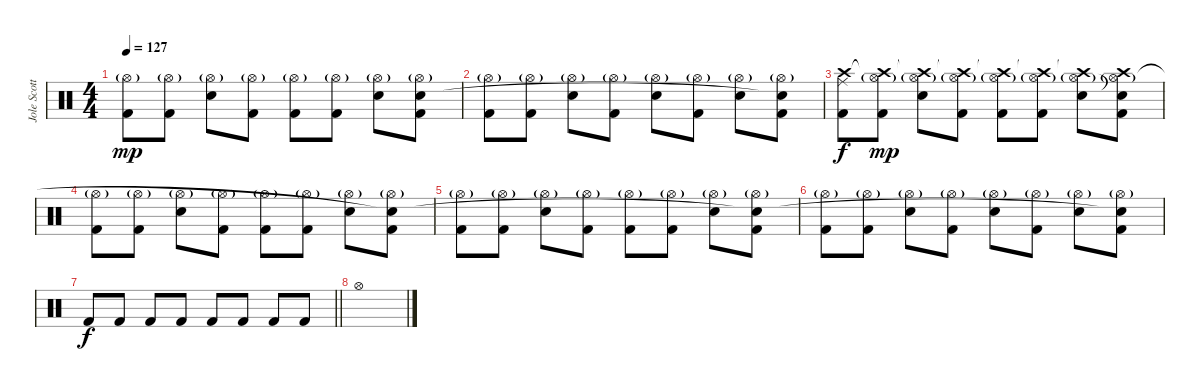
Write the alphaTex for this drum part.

\track ("Jole Scott Key" "Jole Scott") {instrument percussion}
\staff {score}
\articulation defaults
\ts (4 4)
\tempo 127
\clef neutral
\ks c
("Kick (hit) 2" "Hi-Hat (open)"{g}).8{dy mp} ("Kick (hit) 2" "Hi-Hat (open)"{g}).8 ("Electric Snare (hit)" "Hi-Hat (open)"{g}).8 ("Kick (hit) 2" "Hi-Hat (open)"{g}).8 ("Kick (hit) 2" "Hi-Hat (open)"{g}).8 ("Kick (hit) 2" "Hi-Hat (open)"{g}).8 ("Electric Snare (hit)" "Hi-Hat (open)"{g}).8 ("Kick (hit) 2" "Hi-Hat (open)"{g} "Snare (hit)"{t}).8 |
("Kick (hit) 2" "Hi-Hat (open)"{g}).8 ("Kick (hit) 2" "Hi-Hat (open)"{g}).8 ("Electric Snare (hit)" "Hi-Hat (open)"{g}).8 ("Kick (hit) 2" "Hi-Hat (open)"{g}).8 ("Electric Snare (hit)" "Hi-Hat (open)"{g}).8 ("Kick (hit) 2" "Hi-Hat (open)"{g}).8 ("Electric Snare (hit)" "Hi-Hat (open)"{g}).8 ("Kick (hit) 2" "Hi-Hat (open)"{g} "Snare (hit)"{t}).8 |
("Kick (hit) 2" "Ride (middle)" "Crash high (hit)").8{dy f} ("Kick (hit) 2" "Hi-Hat (open)"{g} "Crash high (hit)"{t}).8{dy mp} ("Electric Snare (hit)" "Hi-Hat (open)"{g} "Crash high (hit)"{t}).8 ("Kick (hit) 2" "Hi-Hat (open)"{g} "Crash high (hit)"{t}).8 ("Kick (hit) 2" "Hi-Hat (open)"{g} "Crash high (hit)"{t}).8 ("Kick (hit) 2" "Hi-Hat (open)"{g} "Crash high (hit)"{t}).8 ("Electric Snare (hit)" "Hi-Hat (open)"{g} "Crash high (hit)"{t}).8 ("Kick (hit) 2" "Snare (hit)"{t} "Hi-Hat (open)"{g} "Crash high (hit)").8 |
("Kick (hit) 2" "Hi-Hat (open)"{g}).8 ("Kick (hit) 2" "Hi-Hat (open)"{g}).8 ("Electric Snare (hit)" "Hi-Hat (open)"{g}).8 ("Kick (hit) 2" "Hi-Hat (open)"{g}).8 ("Kick (hit) 2" "Hi-Hat (open)"{g}).8 ("Kick (hit) 2" "Hi-Hat (open)"{g}).8 ("Electric Snare (hit)" "Hi-Hat (open)"{g}).8 ("Kick (hit) 2" "Hi-Hat (open)"{g} "Snare (hit)"{t}).8 |
("Kick (hit) 2" "Hi-Hat (open)"{g}).8 ("Kick (hit) 2" "Hi-Hat (open)"{g}).8 ("Electric Snare (hit)" "Hi-Hat (open)"{g}).8 ("Kick (hit) 2" "Hi-Hat (open)"{g}).8 ("Kick (hit) 2" "Hi-Hat (open)"{g}).8 ("Kick (hit) 2" "Hi-Hat (open)"{g}).8 ("Electric Snare (hit)" "Hi-Hat (open)"{g}).8 ("Kick (hit) 2" "Hi-Hat (open)"{g} "Snare (hit)"{t}).8 |
("Kick (hit) 2" "Hi-Hat (open)"{g}).8 ("Kick (hit) 2" "Hi-Hat (open)"{g}).8 ("Electric Snare (hit)" "Hi-Hat (open)"{g}).8 ("Kick (hit) 2" "Hi-Hat (open)"{g}).8 ("Electric Snare (hit)" "Hi-Hat (open)"{g}).8 ("Kick (hit) 2" "Hi-Hat (open)"{g}).8 ("Electric Snare (hit)" "Hi-Hat (open)"{g}).8 ("Kick (hit) 2" "Hi-Hat (open)"{g} "Snare (hit)"{t}).8 |
\barLineRight lightlight "Kick (hit) 2".8{dy f} "Kick (hit) 2".8 "Kick (hit) 2".8 "Kick (hit) 2".8 "Kick (hit) 2".8 "Kick (hit) 2".8 "Kick (hit) 2".8 "Kick (hit) 2".8
|
"Hi-Hat (open)".1
